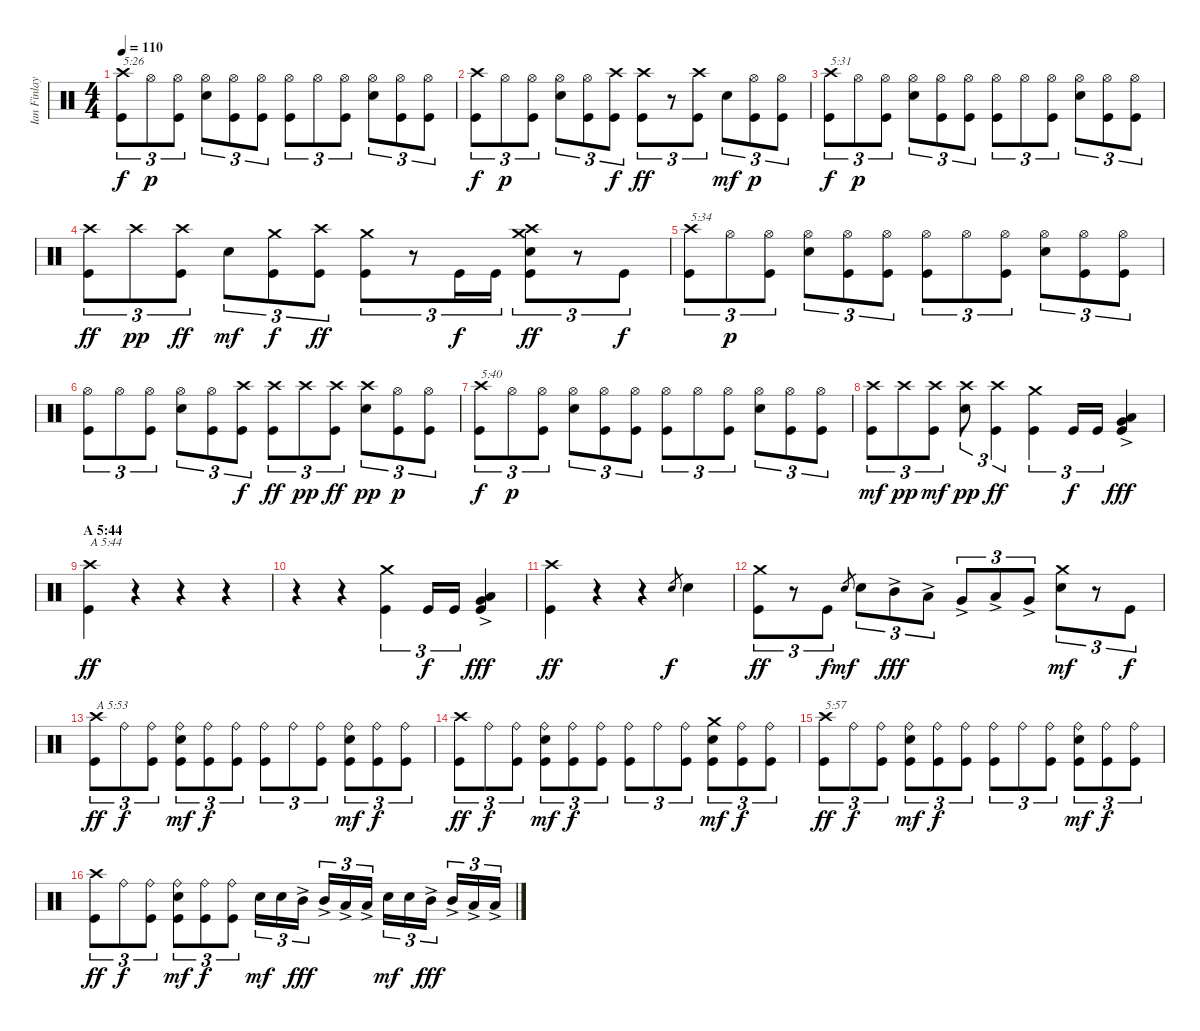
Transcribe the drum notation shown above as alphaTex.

\track ("Ian Finlay" "Ian Finlay") {instrument percussion}
\staff {score}
\articulation defaults
\ts (4 4)
\tempo 110
\clef neutral
\ks c
("Kick (hit)" "Crash high (hit)").8{tu (3 2) txt "5:26" dy f} "Hi-Hat (open)".8{tu (3 2) dy p} ("Kick (hit)" "Hi-Hat (open)").8{tu (3 2)} ("Snare (hit) 2" "Hi-Hat (open)").8{tu (3 2)} ("Kick (hit)" "Hi-Hat (open)").8{tu (3 2)} ("Kick (hit)" "Hi-Hat (open)").8{tu (3 2)} ("Kick (hit)" "Hi-Hat (open)").8{tu (3 2)} "Hi-Hat (open)".8{tu (3 2)} ("Kick (hit)" "Hi-Hat (open)").8{tu (3 2)} ("Snare (hit) 2" "Hi-Hat (open)").8{tu (3 2)} ("Kick (hit)" "Hi-Hat (open)").8{tu (3 2)} ("Kick (hit)" "Hi-Hat (open)").8{tu (3 2)} |
("Kick (hit)" "Crash high (hit)").8{tu (3 2) dy f} "Hi-Hat (open)".8{tu (3 2) dy p} ("Kick (hit)" "Hi-Hat (open)").8{tu (3 2)} ("Snare (hit) 2" "Hi-Hat (open)").8{tu (3 2)} ("Kick (hit)" "Hi-Hat (open)").8{tu (3 2)} ("Kick (hit)" "Crash high (hit)").8{tu (3 2) dy f} ("Kick (hit)" "Crash high (hit)").8{tu (3 2) dy ff} r.8{tu (3 2)} ("Kick (hit)" "Crash high (hit)").8{tu (3 2)} "Snare (hit) 2".8{tu (3 2) dy mf} ("Kick (hit)" "Hi-Hat (open)").8{tu (3 2) dy p} ("Kick (hit)" "Hi-Hat (open)").8{tu (3 2)} |
("Kick (hit)" "Crash high (hit)").8{tu (3 2) txt "5:31" dy f} "Hi-Hat (open)".8{tu (3 2) dy p} ("Kick (hit)" "Hi-Hat (open)").8{tu (3 2)} ("Snare (hit) 2" "Hi-Hat (open)").8{tu (3 2)} ("Kick (hit)" "Hi-Hat (open)").8{tu (3 2)} ("Kick (hit)" "Hi-Hat (open)").8{tu (3 2)} ("Kick (hit)" "Hi-Hat (open)").8{tu (3 2)} "Hi-Hat (open)".8{tu (3 2)} ("Kick (hit)" "Hi-Hat (open)").8{tu (3 2)} ("Snare (hit) 2" "Hi-Hat (open)").8{tu (3 2)} ("Kick (hit)" "Hi-Hat (open)").8{tu (3 2)} ("Kick (hit)" "Hi-Hat (open)").8{tu (3 2)} |
("Kick (hit)" "Crash high (hit)").8{tu (3 2) dy ff} "Crash high (hit)".8{tu (3 2) dy pp} ("Kick (hit)" "Crash high (hit)").8{tu (3 2) dy ff} "Snare (hit) 2".8{tu (3 2) dy mf} ("Kick (hit)" "Crash medium (hit)").8{tu (3 2) dy f} ("Kick (hit)" "Crash high (hit)").8{tu (3 2) dy ff} ("Kick (hit)" "Crash medium (hit)").8{tu (3 2)} r.8{tu (3 2)} "Kick (hit)".16{tu (3 2) dy f} "Kick (hit)".16{tu (3 2)} ("Kick (hit)" "Snare (hit) 2" "Crash medium (hit)" "Crash high (hit)").8{tu (3 2) dy ff} r.8{tu (3 2)} "Kick (hit)".8{tu (3 2) dy f} |
("Kick (hit)" "Crash high (hit)").8{tu (3 2) txt "5:34"} "Hi-Hat (open)".8{tu (3 2) dy p} ("Kick (hit)" "Hi-Hat (open)").8{tu (3 2)} ("Snare (hit) 2" "Hi-Hat (open)").8{tu (3 2)} ("Kick (hit)" "Hi-Hat (open)").8{tu (3 2)} ("Kick (hit)" "Hi-Hat (open)").8{tu (3 2)} ("Kick (hit)" "Hi-Hat (open)").8{tu (3 2)} "Hi-Hat (open)".8{tu (3 2)} ("Kick (hit)" "Hi-Hat (open)").8{tu (3 2)} ("Snare (hit) 2" "Hi-Hat (open)").8{tu (3 2)} ("Kick (hit)" "Hi-Hat (open)").8{tu (3 2)} ("Kick (hit)" "Hi-Hat (open)").8{tu (3 2)} |
("Kick (hit)" "Hi-Hat (open)").8{tu (3 2)} "Hi-Hat (open)".8{tu (3 2)} ("Kick (hit)" "Hi-Hat (open)").8{tu (3 2)} ("Snare (hit) 2" "Hi-Hat (open)").8{tu (3 2)} ("Kick (hit)" "Hi-Hat (open)").8{tu (3 2)} ("Kick (hit)" "Crash high (hit)").8{tu (3 2) dy f} ("Kick (hit)" "Crash high (hit)").8{tu (3 2) dy ff} "Crash high (hit)".8{tu (3 2) dy pp} ("Kick (hit)" "Crash high (hit)").8{tu (3 2) dy ff} ("Snare (hit) 2" "Crash high (hit)").8{tu (3 2) dy pp} ("Kick (hit)" "Hi-Hat (open)").8{tu (3 2) dy p} ("Kick (hit)" "Hi-Hat (open)").8{tu (3 2)} |
("Kick (hit)" "Crash high (hit)").8{tu (3 2) txt "5:40" dy f} "Hi-Hat (open)".8{tu (3 2) dy p} ("Kick (hit)" "Hi-Hat (open)").8{tu (3 2)} ("Snare (hit) 2" "Hi-Hat (open)").8{tu (3 2)} ("Kick (hit)" "Hi-Hat (open)").8{tu (3 2)} ("Kick (hit)" "Hi-Hat (open)").8{tu (3 2)} ("Kick (hit)" "Hi-Hat (open)").8{tu (3 2)} "Hi-Hat (open)".8{tu (3 2)} ("Kick (hit)" "Hi-Hat (open)").8{tu (3 2)} ("Snare (hit) 2" "Hi-Hat (open)").8{tu (3 2)} ("Kick (hit)" "Hi-Hat (open)").8{tu (3 2)} ("Kick (hit)" "Hi-Hat (open)").8{tu (3 2)} |
("Kick (hit)" "Crash high (hit)").8{tu (3 2) dy mf} "Crash high (hit)".8{tu (3 2) dy pp} ("Kick (hit)" "Crash high (hit)").8{tu (3 2) dy mf} ("Snare (hit) 2" "Crash high (hit)").8{tu (3 2) dy pp} ("Kick (hit)" "Crash high (hit)").4{tu (3 2) dy ff} ("Kick (hit)" "Crash medium (hit)").4{tu (3 2)} "Kick (hit)".16{tu (3 2) dy f} "Kick (hit)".16{tu (3 2)} ("Kick (hit)" "Very Low Tom (hit)"{ac} "Low Tom (hit)"{ac}).4{dy fff} |
\section ("" "A 5:44")
("Kick (hit)" "Crash high (hit)").4{txt "A 5:44" dy ff} r.4 r.4 r.4 |
r.4 r.4 ("Kick (hit)" "Crash medium (hit)").4{tu (3 2)} "Kick (hit)".16{tu (3 2) dy f} "Kick (hit)".16{tu (3 2)} ("Kick (hit)" "Very Low Tom (hit)"{ac} "Low Tom (hit)"{ac}).4{dy fff} |
("Kick (hit)" "Crash high (hit)").4{dy ff} r.4 r.4 "Snare (hit) 2".8{gr dy f} "Snare (hit) 2".4 |
("Kick (hit)" "Crash medium (hit)").8{tu (3 2) dy ff} r.8{tu (3 2)} "Kick (hit)".8{tu (3 2) dy f} "Snare (hit) 2".8{gr dy mf} "Snare (hit) 2".8{tu (3 2)} "Mid Tom (hit)"{ac}.8{tu (3 2) dy fff} "Low Tom (hit)"{ac}.8{tu (3 2)} "Very Low Tom (hit)"{ac}.8{tu (3 2)} "Low Tom (hit)"{ac}.8{tu (3 2)} "Very Low Tom (hit)"{ac}.8{tu (3 2)} ("Snare (hit) 2" "Crash medium (hit)").8{tu (3 2) dy mf} r.8{tu (3 2)} "Kick (hit)".8{tu (3 2) dy f} |
("Kick (hit)" "Crash high (hit)").8{tu (3 2) txt "A 5:53" dy ff} "Ride (bell)".8{tu (3 2) dy f} ("Kick (hit)" "Ride (bell)").8{tu (3 2)} ("Kick (hit)" "Snare (hit) 2" "Ride (bell)").8{tu (3 2) dy mf} ("Kick (hit)" "Ride (bell)").8{tu (3 2) dy f} ("Kick (hit)" "Ride (bell)").8{tu (3 2)} ("Kick (hit)" "Ride (bell)").8{tu (3 2)} "Ride (bell)".8{tu (3 2)} ("Kick (hit)" "Ride (bell)").8{tu (3 2)} ("Kick (hit)" "Snare (hit) 2" "Ride (bell)").8{tu (3 2) dy mf} ("Kick (hit)" "Ride (bell)").8{tu (3 2) dy f} ("Kick (hit)" "Ride (bell)").8{tu (3 2)} |
("Kick (hit)" "Crash high (hit)").8{tu (3 2) dy ff} "Ride (bell)".8{tu (3 2) dy f} ("Kick (hit)" "Ride (bell)").8{tu (3 2)} ("Kick (hit)" "Snare (hit) 2" "Ride (bell)").8{tu (3 2) dy mf} ("Kick (hit)" "Ride (bell)").8{tu (3 2) dy f} ("Kick (hit)" "Ride (bell)").8{tu (3 2)} ("Kick (hit)" "Ride (bell)").8{tu (3 2)} "Ride (bell)".8{tu (3 2)} ("Kick (hit)" "Ride (bell)").8{tu (3 2)} ("Kick (hit)" "Snare (hit) 2" "Crash medium (hit)").8{tu (3 2) dy mf} ("Kick (hit)" "Ride (bell)").8{tu (3 2) dy f} ("Kick (hit)" "Ride (bell)").8{tu (3 2)} |
("Kick (hit)" "Crash high (hit)").8{tu (3 2) txt "5:57" dy ff} "Ride (bell)".8{tu (3 2) dy f} ("Kick (hit)" "Ride (bell)").8{tu (3 2)} ("Kick (hit)" "Snare (hit) 2" "Ride (bell)").8{tu (3 2) dy mf} ("Kick (hit)" "Ride (bell)").8{tu (3 2) dy f} ("Kick (hit)" "Ride (bell)").8{tu (3 2)} ("Kick (hit)" "Ride (bell)").8{tu (3 2)} "Ride (bell)".8{tu (3 2)} ("Kick (hit)" "Ride (bell)").8{tu (3 2)} ("Kick (hit)" "Snare (hit) 2" "Ride (bell)").8{tu (3 2) dy mf} ("Kick (hit)" "Ride (bell)").8{tu (3 2) dy f} ("Kick (hit)" "Ride (bell)").8{tu (3 2)} |
("Kick (hit)" "Crash high (hit)").8{tu (3 2) dy ff} "Ride (bell)".8{tu (3 2) dy f} ("Kick (hit)" "Ride (bell)").8{tu (3 2)} ("Kick (hit)" "Snare (hit) 2" "Ride (bell)").8{tu (3 2) dy mf} ("Kick (hit)" "Ride (bell)").8{tu (3 2) dy f} ("Kick (hit)" "Ride (bell)").8{tu (3 2)} "Snare (hit) 2".16{tu (3 2) dy mf} "Snare (hit) 2".16{tu (3 2)} "Mid Tom (hit)"{ac}.16{tu (3 2) dy fff} "Mid Tom (hit)"{ac}.16{tu (3 2)} "Low Tom (hit)"{ac}.16{tu (3 2)} "Low Tom (hit)"{ac}.16{tu (3 2)} "Snare (hit) 2".16{tu (3 2) dy mf} "Snare (hit) 2".16{tu (3 2)} "Mid Tom (hit)"{ac}.16{tu (3 2) dy fff} "Mid Tom (hit)"{ac}.16{tu (3 2)} "Low Tom (hit)"{ac}.16{tu (3 2)} "Low Tom (hit)"{ac}.16{tu (3 2)}
